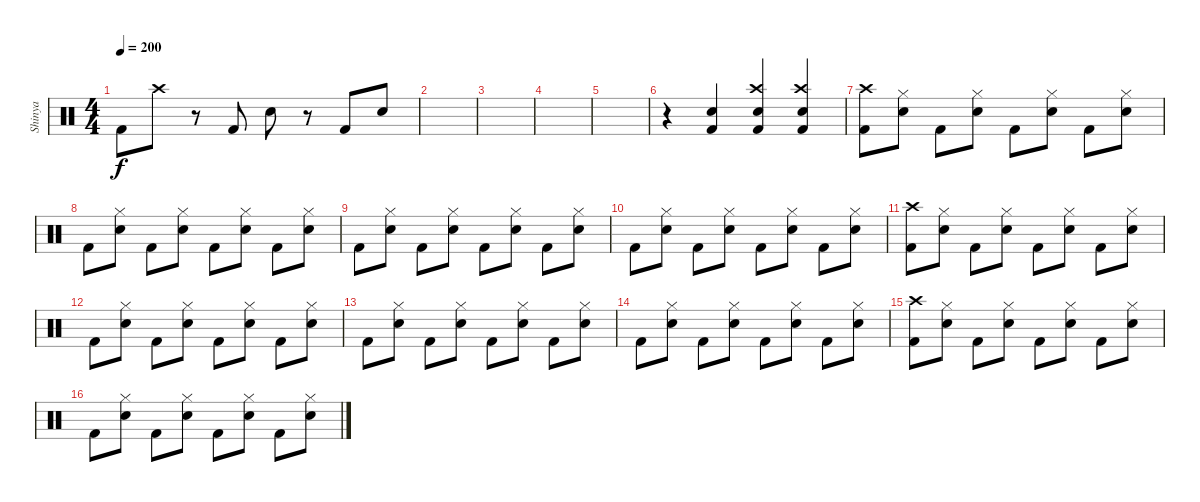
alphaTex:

\track ("Shinya" "Shinya") {instrument percussion}
\staff {score}
\articulation defaults
\ts (4 4)
\tempo 200
\clef neutral
\ks c "Kick (hit) 2".8{dy f} "Crash high (hit)".8
r.8 "Kick (hit) 2".8 "Electric Snare (hit)".8 r.8 "Kick (hit) 2".8 "Electric Snare (hit)".8 |
|
|
|
|
r.4 ("Electric Snare (hit)" "Kick (hit) 2").4 ("Crash high (hit)" "Electric Snare (hit)" "Kick (hit) 2").4 ("Crash high (hit)" "Electric Snare (hit)" "Kick (hit) 2").4 |
("Crash high (hit)" "Kick (hit) 2").8 ("Hi-Hat (closed)" "Electric Snare (hit)").8 "Kick (hit) 2".8 ("Hi-Hat (closed)" "Electric Snare (hit)").8 "Kick (hit) 2".8 ("Hi-Hat (closed)" "Electric Snare (hit)").8 "Kick (hit) 2".8 ("Hi-Hat (closed)" "Electric Snare (hit)").8 |
"Kick (hit) 2".8 ("Hi-Hat (closed)" "Electric Snare (hit)").8 "Kick (hit) 2".8 ("Hi-Hat (closed)" "Electric Snare (hit)").8 "Kick (hit) 2".8 ("Hi-Hat (closed)" "Electric Snare (hit)").8 "Kick (hit) 2".8 ("Hi-Hat (closed)" "Electric Snare (hit)").8 |
"Kick (hit) 2".8 ("Hi-Hat (closed)" "Electric Snare (hit)").8 "Kick (hit) 2".8 ("Hi-Hat (closed)" "Electric Snare (hit)").8 "Kick (hit) 2".8 ("Hi-Hat (closed)" "Electric Snare (hit)").8 "Kick (hit) 2".8 ("Hi-Hat (closed)" "Electric Snare (hit)").8 |
"Kick (hit) 2".8 ("Hi-Hat (closed)" "Electric Snare (hit)").8 "Kick (hit) 2".8 ("Hi-Hat (closed)" "Electric Snare (hit)").8 "Kick (hit) 2".8 ("Hi-Hat (closed)" "Electric Snare (hit)").8 "Kick (hit) 2".8 ("Hi-Hat (closed)" "Electric Snare (hit)").8 |
("Crash high (hit)" "Kick (hit) 2").8 ("Hi-Hat (closed)" "Electric Snare (hit)").8 "Kick (hit) 2".8 ("Hi-Hat (closed)" "Electric Snare (hit)").8 "Kick (hit) 2".8 ("Hi-Hat (closed)" "Electric Snare (hit)").8 "Kick (hit) 2".8 ("Hi-Hat (closed)" "Electric Snare (hit)").8 |
"Kick (hit) 2".8 ("Hi-Hat (closed)" "Electric Snare (hit)").8 "Kick (hit) 2".8 ("Hi-Hat (closed)" "Electric Snare (hit)").8 "Kick (hit) 2".8 ("Hi-Hat (closed)" "Electric Snare (hit)").8 "Kick (hit) 2".8 ("Hi-Hat (closed)" "Electric Snare (hit)").8 |
"Kick (hit) 2".8 ("Hi-Hat (closed)" "Electric Snare (hit)").8 "Kick (hit) 2".8 ("Hi-Hat (closed)" "Electric Snare (hit)").8 "Kick (hit) 2".8 ("Hi-Hat (closed)" "Electric Snare (hit)").8 "Kick (hit) 2".8 ("Hi-Hat (closed)" "Electric Snare (hit)").8 |
"Kick (hit) 2".8 ("Hi-Hat (closed)" "Electric Snare (hit)").8 "Kick (hit) 2".8 ("Hi-Hat (closed)" "Electric Snare (hit)").8 "Kick (hit) 2".8 ("Hi-Hat (closed)" "Electric Snare (hit)").8 "Kick (hit) 2".8 ("Hi-Hat (closed)" "Electric Snare (hit)").8 |
("Crash high (hit)" "Kick (hit) 2").8 ("Hi-Hat (closed)" "Electric Snare (hit)").8 "Kick (hit) 2".8 ("Hi-Hat (closed)" "Electric Snare (hit)").8 "Kick (hit) 2".8 ("Hi-Hat (closed)" "Electric Snare (hit)").8 "Kick (hit) 2".8 ("Hi-Hat (closed)" "Electric Snare (hit)").8 |
"Kick (hit) 2".8 ("Hi-Hat (closed)" "Electric Snare (hit)").8 "Kick (hit) 2".8 ("Hi-Hat (closed)" "Electric Snare (hit)").8 "Kick (hit) 2".8 ("Hi-Hat (closed)" "Electric Snare (hit)").8 "Kick (hit) 2".8 ("Hi-Hat (closed)" "Electric Snare (hit)").8
